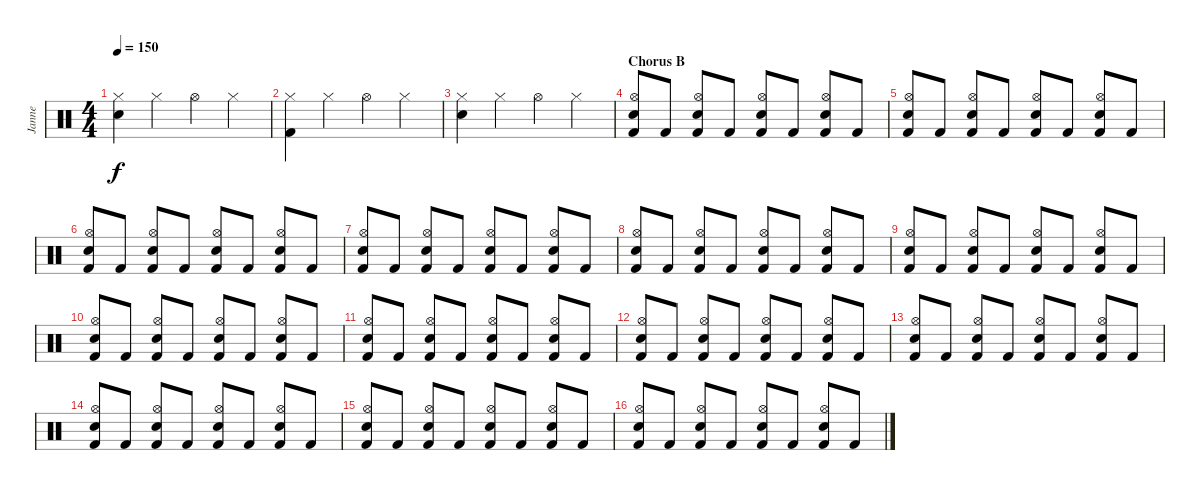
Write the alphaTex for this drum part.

\track ("Janne" "Janne") {instrument percussion}
\staff {score}
\articulation defaults
\ts (4 4)
\tempo 150
\clef neutral
\ks c
("Hi-Hat (closed)" "Electric Snare (hit)").4{dy f} "Hi-Hat (closed)".4 "Hi-Hat (open)".4 "Hi-Hat (closed)".4 |
("Hi-Hat (closed)" "Kick (hit) 2").4 "Hi-Hat (closed)".4 "Hi-Hat (open)".4 "Hi-Hat (closed)".4 |
("Hi-Hat (closed)" "Electric Snare (hit)").4 "Hi-Hat (closed)".4 "Hi-Hat (open)".4 "Hi-Hat (closed)".4 |
\section ("" "Chorus B")
("Hi-Hat (open)" "Electric Snare (hit)" "Kick (hit) 2").8 "Kick (hit) 2".8 ("Hi-Hat (open)" "Electric Snare (hit)" "Kick (hit) 2").8 "Kick (hit) 2".8 ("Hi-Hat (open)" "Electric Snare (hit)" "Kick (hit) 2").8 "Kick (hit) 2".8 ("Hi-Hat (open)" "Electric Snare (hit)" "Kick (hit) 2").8 "Kick (hit) 2".8 |
("Hi-Hat (open)" "Electric Snare (hit)" "Kick (hit) 2").8 "Kick (hit) 2".8 ("Hi-Hat (open)" "Electric Snare (hit)" "Kick (hit) 2").8 "Kick (hit) 2".8 ("Hi-Hat (open)" "Electric Snare (hit)" "Kick (hit) 2").8 "Kick (hit) 2".8 ("Hi-Hat (open)" "Electric Snare (hit)" "Kick (hit) 2").8 "Kick (hit) 2".8 |
("Hi-Hat (open)" "Electric Snare (hit)" "Kick (hit) 2").8 "Kick (hit) 2".8 ("Hi-Hat (open)" "Electric Snare (hit)" "Kick (hit) 2").8 "Kick (hit) 2".8 ("Hi-Hat (open)" "Electric Snare (hit)" "Kick (hit) 2").8 "Kick (hit) 2".8 ("Hi-Hat (open)" "Electric Snare (hit)" "Kick (hit) 2").8 "Kick (hit) 2".8 |
("Hi-Hat (open)" "Electric Snare (hit)" "Kick (hit) 2").8 "Kick (hit) 2".8 ("Hi-Hat (open)" "Electric Snare (hit)" "Kick (hit) 2").8 "Kick (hit) 2".8 ("Hi-Hat (open)" "Electric Snare (hit)" "Kick (hit) 2").8 "Kick (hit) 2".8 ("Hi-Hat (open)" "Electric Snare (hit)" "Kick (hit) 2").8 "Kick (hit) 2".8 |
("Hi-Hat (open)" "Electric Snare (hit)" "Kick (hit) 2").8 "Kick (hit) 2".8 ("Hi-Hat (open)" "Electric Snare (hit)" "Kick (hit) 2").8 "Kick (hit) 2".8 ("Hi-Hat (open)" "Electric Snare (hit)" "Kick (hit) 2").8 "Kick (hit) 2".8 ("Hi-Hat (open)" "Electric Snare (hit)" "Kick (hit) 2").8 "Kick (hit) 2".8 |
("Hi-Hat (open)" "Electric Snare (hit)" "Kick (hit) 2").8 "Kick (hit) 2".8 ("Hi-Hat (open)" "Electric Snare (hit)" "Kick (hit) 2").8 "Kick (hit) 2".8 ("Hi-Hat (open)" "Electric Snare (hit)" "Kick (hit) 2").8 "Kick (hit) 2".8 ("Hi-Hat (open)" "Electric Snare (hit)" "Kick (hit) 2").8 "Kick (hit) 2".8 |
("Hi-Hat (open)" "Electric Snare (hit)" "Kick (hit) 2").8 "Kick (hit) 2".8 ("Hi-Hat (open)" "Electric Snare (hit)" "Kick (hit) 2").8 "Kick (hit) 2".8 ("Hi-Hat (open)" "Electric Snare (hit)" "Kick (hit) 2").8 "Kick (hit) 2".8 ("Hi-Hat (open)" "Electric Snare (hit)" "Kick (hit) 2").8 "Kick (hit) 2".8 |
("Hi-Hat (open)" "Electric Snare (hit)" "Kick (hit) 2").8 "Kick (hit) 2".8 ("Hi-Hat (open)" "Electric Snare (hit)" "Kick (hit) 2").8 "Kick (hit) 2".8 ("Hi-Hat (open)" "Electric Snare (hit)" "Kick (hit) 2").8 "Kick (hit) 2".8 ("Hi-Hat (open)" "Electric Snare (hit)" "Kick (hit) 2").8 "Kick (hit) 2".8 |
("Hi-Hat (open)" "Electric Snare (hit)" "Kick (hit) 2").8 "Kick (hit) 2".8 ("Hi-Hat (open)" "Electric Snare (hit)" "Kick (hit) 2").8 "Kick (hit) 2".8 ("Hi-Hat (open)" "Electric Snare (hit)" "Kick (hit) 2").8 "Kick (hit) 2".8 ("Hi-Hat (open)" "Electric Snare (hit)" "Kick (hit) 2").8 "Kick (hit) 2".8 |
("Hi-Hat (open)" "Electric Snare (hit)" "Kick (hit) 2").8 "Kick (hit) 2".8 ("Hi-Hat (open)" "Electric Snare (hit)" "Kick (hit) 2").8 "Kick (hit) 2".8 ("Hi-Hat (open)" "Electric Snare (hit)" "Kick (hit) 2").8 "Kick (hit) 2".8 ("Hi-Hat (open)" "Electric Snare (hit)" "Kick (hit) 2").8 "Kick (hit) 2".8 |
("Hi-Hat (open)" "Electric Snare (hit)" "Kick (hit) 2").8 "Kick (hit) 2".8 ("Hi-Hat (open)" "Electric Snare (hit)" "Kick (hit) 2").8 "Kick (hit) 2".8 ("Hi-Hat (open)" "Electric Snare (hit)" "Kick (hit) 2").8 "Kick (hit) 2".8 ("Hi-Hat (open)" "Electric Snare (hit)" "Kick (hit) 2").8 "Kick (hit) 2".8 |
("Hi-Hat (open)" "Electric Snare (hit)" "Kick (hit) 2").8 "Kick (hit) 2".8 ("Hi-Hat (open)" "Electric Snare (hit)" "Kick (hit) 2").8 "Kick (hit) 2".8 ("Hi-Hat (open)" "Electric Snare (hit)" "Kick (hit) 2").8 "Kick (hit) 2".8 ("Hi-Hat (open)" "Electric Snare (hit)" "Kick (hit) 2").8 "Kick (hit) 2".8 |
("Hi-Hat (open)" "Electric Snare (hit)" "Kick (hit) 2").8 "Kick (hit) 2".8 ("Hi-Hat (open)" "Electric Snare (hit)" "Kick (hit) 2").8 "Kick (hit) 2".8 ("Hi-Hat (open)" "Electric Snare (hit)" "Kick (hit) 2").8 "Kick (hit) 2".8 ("Hi-Hat (open)" "Electric Snare (hit)" "Kick (hit) 2").8 "Kick (hit) 2".8
